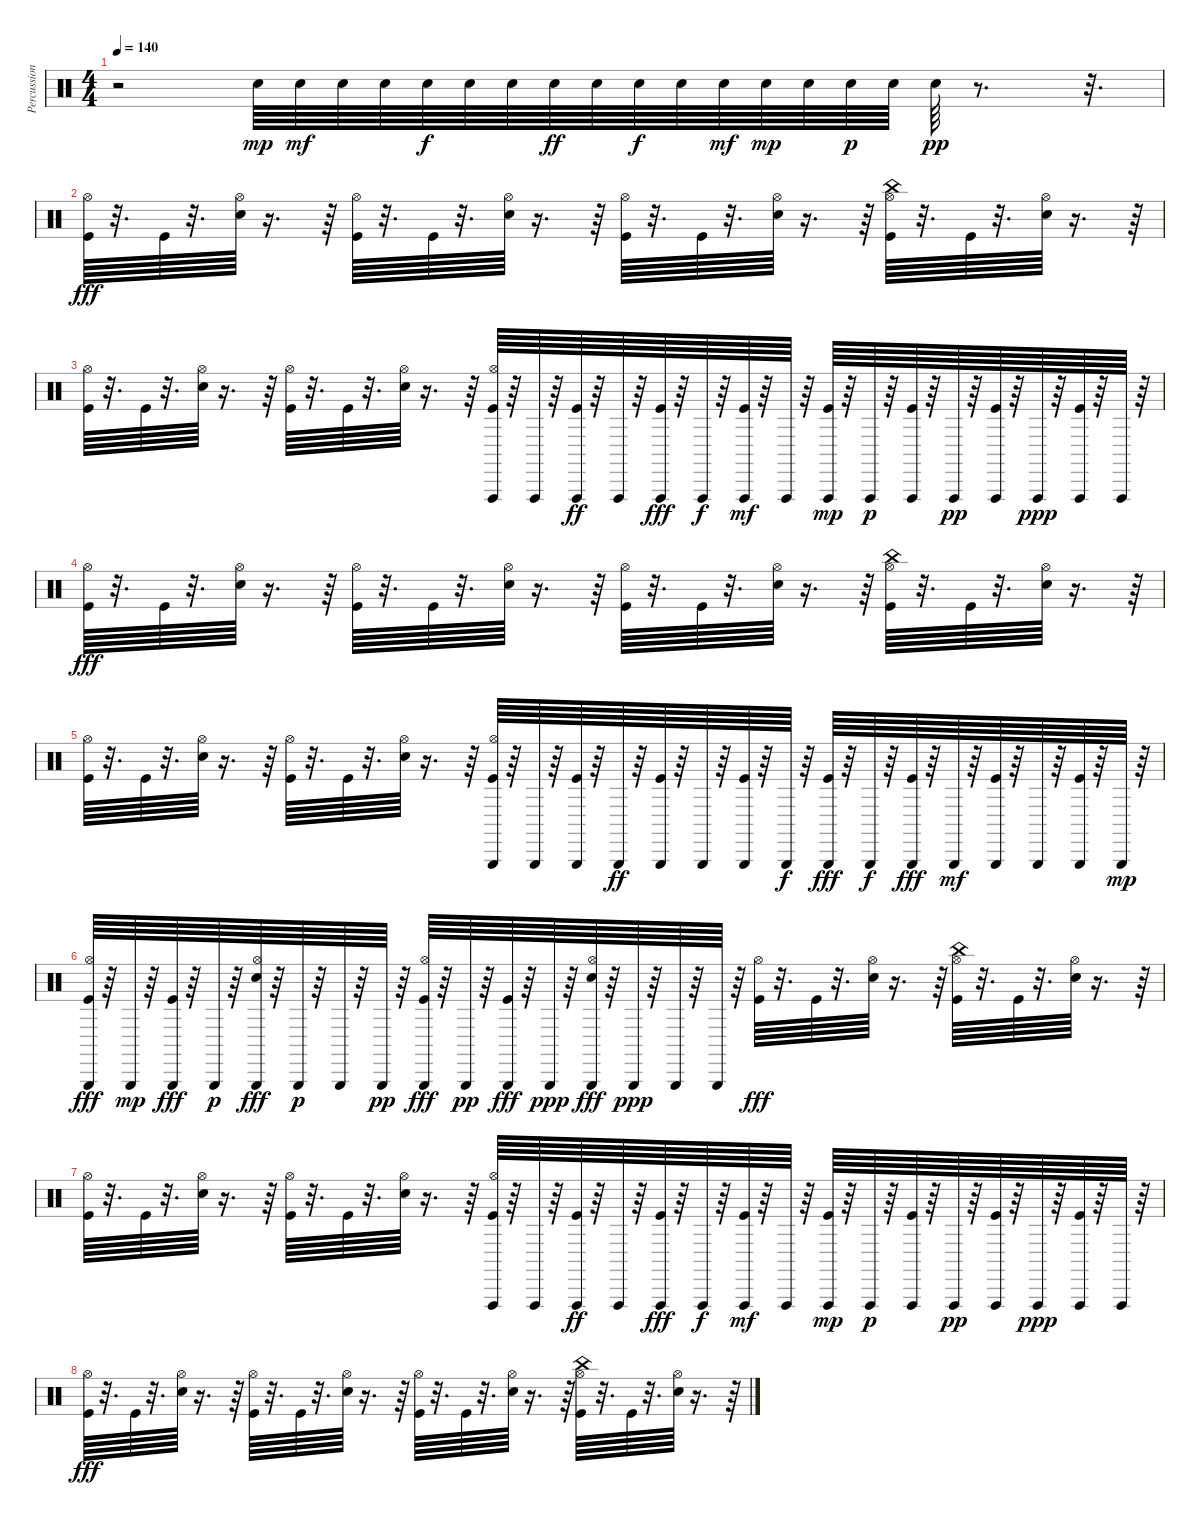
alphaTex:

\track ("Percussion [Room Kit]" "Percussion") {instrument percussion}
\staff {score}
\articulation defaults
\ts (4 4)
\tempo 140
\clef neutral
\ks c
r.2{dy fff} "Electric Snare (hit)".64{dy mp} "Electric Snare (hit)".64{dy mf} "Electric Snare (hit)".64 "Electric Snare (hit)".64 "Electric Snare (hit)".64{dy f} "Electric Snare (hit)".64 "Electric Snare (hit)".64 "Electric Snare (hit)".64{dy ff} "Electric Snare (hit)".64 "Electric Snare (hit)".64{dy f} "Electric Snare (hit)".64 "Electric Snare (hit)".64{dy mf} "Electric Snare (hit)".64{dy mp} "Electric Snare (hit)".64 "Electric Snare (hit)".64{dy p} "Electric Snare (hit)".64 "Electric Snare (hit)".64{dy pp} r.8{d} r.32{d} |
("Kick (hit)" "Hi-Hat (open)").64{dy fff} r.32{d} "Kick (hit)".64 r.32{d} ("Electric Snare (hit)" "Hi-Hat (open)").64 r.16{d} r.64 ("Kick (hit)" "Hi-Hat (open)").64 r.32{d} "Kick (hit)".64 r.32{d} ("Electric Snare (hit)" "Hi-Hat (open)").64 r.16{d} r.64 ("Kick (hit)" "Hi-Hat (open)").64 r.32{d} "Kick (hit)".64 r.32{d} ("Electric Snare (hit)" "Hi-Hat (open)").64 r.16{d} r.64 ("Kick (hit)" "Hi-Hat (open)" "China (hit)").64 r.32{d} "Kick (hit)".64 r.32{d} ("Electric Snare (hit)" "Hi-Hat (open)").64 r.16{d} r.64 |
("Kick (hit)" "Hi-Hat (open)").64 r.32{d} "Kick (hit)".64 r.32{d} ("Electric Snare (hit)" "Hi-Hat (open)").64 r.16{d} r.64 ("Kick (hit)" "Hi-Hat (open)").64 r.32{d} "Kick (hit)".64 r.32{d} ("Electric Snare (hit)" "Hi-Hat (open)").64 r.16{d} r.64 ("Kick (hit)" "Hi-Hat (open)" "Vibraslap (hit)").64 r.64 "Vibraslap (hit)".64 r.64 ("Kick (hit)" "Vibraslap (hit)").64{dy ff} r.64 "Vibraslap (hit)".64 r.64 ("Kick (hit)" "Vibraslap (hit)").64{dy fff} r.64 "Vibraslap (hit)".64{dy f} r.64 ("Kick (hit)" "Vibraslap (hit)").64{dy mf} r.64 "Vibraslap (hit)".64 r.64 ("Kick (hit)" "Vibraslap (hit)").64{dy mp} r.64 "Vibraslap (hit)".64{dy p} r.64 ("Kick (hit)" "Vibraslap (hit)").64 r.64 "Vibraslap (hit)".64{dy pp} r.64 ("Kick (hit)" "Vibraslap (hit)").64 r.64 "Vibraslap (hit)".64{dy ppp} r.64 ("Kick (hit)" "Vibraslap (hit)").64 r.64 "Vibraslap (hit)".64 r.64 |
("Kick (hit)" "Hi-Hat (open)").64{dy fff} r.32{d} "Kick (hit)".64 r.32{d} ("Electric Snare (hit)" "Hi-Hat (open)").64 r.16{d} r.64 ("Kick (hit)" "Hi-Hat (open)").64 r.32{d} "Kick (hit)".64 r.32{d} ("Electric Snare (hit)" "Hi-Hat (open)").64 r.16{d} r.64 ("Kick (hit)" "Hi-Hat (open)").64 r.32{d} "Kick (hit)".64 r.32{d} ("Electric Snare (hit)" "Hi-Hat (open)").64 r.16{d} r.64 ("Kick (hit)" "Hi-Hat (open)" "China (hit)").64 r.32{d} "Kick (hit)".64 r.32{d} ("Electric Snare (hit)" "Hi-Hat (open)").64 r.16{d} r.64 |
("Kick (hit)" "Hi-Hat (open)").64 r.32{d} "Kick (hit)".64 r.32{d} ("Electric Snare (hit)" "Hi-Hat (open)").64 r.16{d} r.64 ("Kick (hit)" "Hi-Hat (open)").64 r.32{d} "Kick (hit)".64 r.32{d} ("Electric Snare (hit)" "Hi-Hat (open)").64 r.16{d} r.64 ("Kick (hit)" "Hi-Hat (open)" "Triangle (hit)").64 r.64 "Triangle (hit)".64 r.64 ("Kick (hit)" "Triangle (hit)").64 r.64 "Triangle (hit)".64{dy ff} r.64 ("Kick (hit)" "Triangle (hit)").64 r.64 "Triangle (hit)".64 r.64 ("Kick (hit)" "Triangle (hit)").64 r.64 "Triangle (hit)".64{dy f} r.64 ("Kick (hit)" "Triangle (hit)").64{dy fff} r.64 "Triangle (hit)".64{dy f} r.64 ("Kick (hit)" "Triangle (hit)").64{dy fff} r.64 "Triangle (hit)".64{dy mf} r.64 ("Kick (hit)" "Triangle (hit)").64 r.64 "Triangle (hit)".64 r.64 ("Kick (hit)" "Triangle (hit)").64 r.64 "Triangle (hit)".64{dy mp} r.64 |
("Triangle (hit)" "Hi-Hat (open)" "Kick (hit)").64{dy fff} r.64 "Triangle (hit)".64{dy mp} r.64 ("Triangle (hit)" "Kick (hit)").64{dy fff} r.64 "Triangle (hit)".64{dy p} r.64 ("Triangle (hit)" "Electric Snare (hit)" "Hi-Hat (open)").64{dy fff} r.64 "Triangle (hit)".64{dy p} r.64 "Triangle (hit)".64 r.64 "Triangle (hit)".64{dy pp} r.64 ("Triangle (hit)" "Kick (hit)" "Hi-Hat (open)").64{dy fff} r.64 "Triangle (hit)".64{dy pp} r.64 ("Triangle (hit)" "Kick (hit)").64{dy fff} r.64 "Triangle (hit)".64{dy ppp} r.64 ("Triangle (hit)" "Electric Snare (hit)" "Hi-Hat (open)").64{dy fff} r.64 "Triangle (hit)".64{dy ppp} r.64 "Triangle (hit)".64 r.64 "Triangle (hit)".64 r.64 ("Kick (hit)" "Hi-Hat (open)").64{dy fff} r.32{d} "Kick (hit)".64 r.32{d} ("Electric Snare (hit)" "Hi-Hat (open)").64 r.16{d} r.64 ("Kick (hit)" "Hi-Hat (open)" "China (hit)").64 r.32{d} "Kick (hit)".64 r.32{d} ("Electric Snare (hit)" "Hi-Hat (open)").64 r.16{d} r.64 |
("Kick (hit)" "Hi-Hat (open)").64 r.32{d} "Kick (hit)".64 r.32{d} ("Electric Snare (hit)" "Hi-Hat (open)").64 r.16{d} r.64 ("Kick (hit)" "Hi-Hat (open)").64 r.32{d} "Kick (hit)".64 r.32{d} ("Electric Snare (hit)" "Hi-Hat (open)").64 r.16{d} r.64 ("Kick (hit)" "Hi-Hat (open)" "Vibraslap (hit)").64 r.64 "Vibraslap (hit)".64 r.64 ("Kick (hit)" "Vibraslap (hit)").64{dy ff} r.64 "Vibraslap (hit)".64 r.64 ("Kick (hit)" "Vibraslap (hit)").64{dy fff} r.64 "Vibraslap (hit)".64{dy f} r.64 ("Kick (hit)" "Vibraslap (hit)").64{dy mf} r.64 "Vibraslap (hit)".64 r.64 ("Kick (hit)" "Vibraslap (hit)").64{dy mp} r.64 "Vibraslap (hit)".64{dy p} r.64 ("Kick (hit)" "Vibraslap (hit)").64 r.64 "Vibraslap (hit)".64{dy pp} r.64 ("Kick (hit)" "Vibraslap (hit)").64 r.64 "Vibraslap (hit)".64{dy ppp} r.64 ("Kick (hit)" "Vibraslap (hit)").64 r.64 "Vibraslap (hit)".64 r.64 |
("Kick (hit)" "Hi-Hat (open)").64{dy fff} r.32{d} "Kick (hit)".64 r.32{d} ("Electric Snare (hit)" "Hi-Hat (open)").64 r.16{d} r.64 ("Kick (hit)" "Hi-Hat (open)").64 r.32{d} "Kick (hit)".64 r.32{d} ("Electric Snare (hit)" "Hi-Hat (open)").64 r.16{d} r.64 ("Kick (hit)" "Hi-Hat (open)").64 r.32{d} "Kick (hit)".64 r.32{d} ("Electric Snare (hit)" "Hi-Hat (open)").64 r.16{d} r.64 ("Kick (hit)" "Hi-Hat (open)" "China (hit)").64 r.32{d} "Kick (hit)".64 r.32{d} ("Electric Snare (hit)" "Hi-Hat (open)").64 r.16{d} r.64
